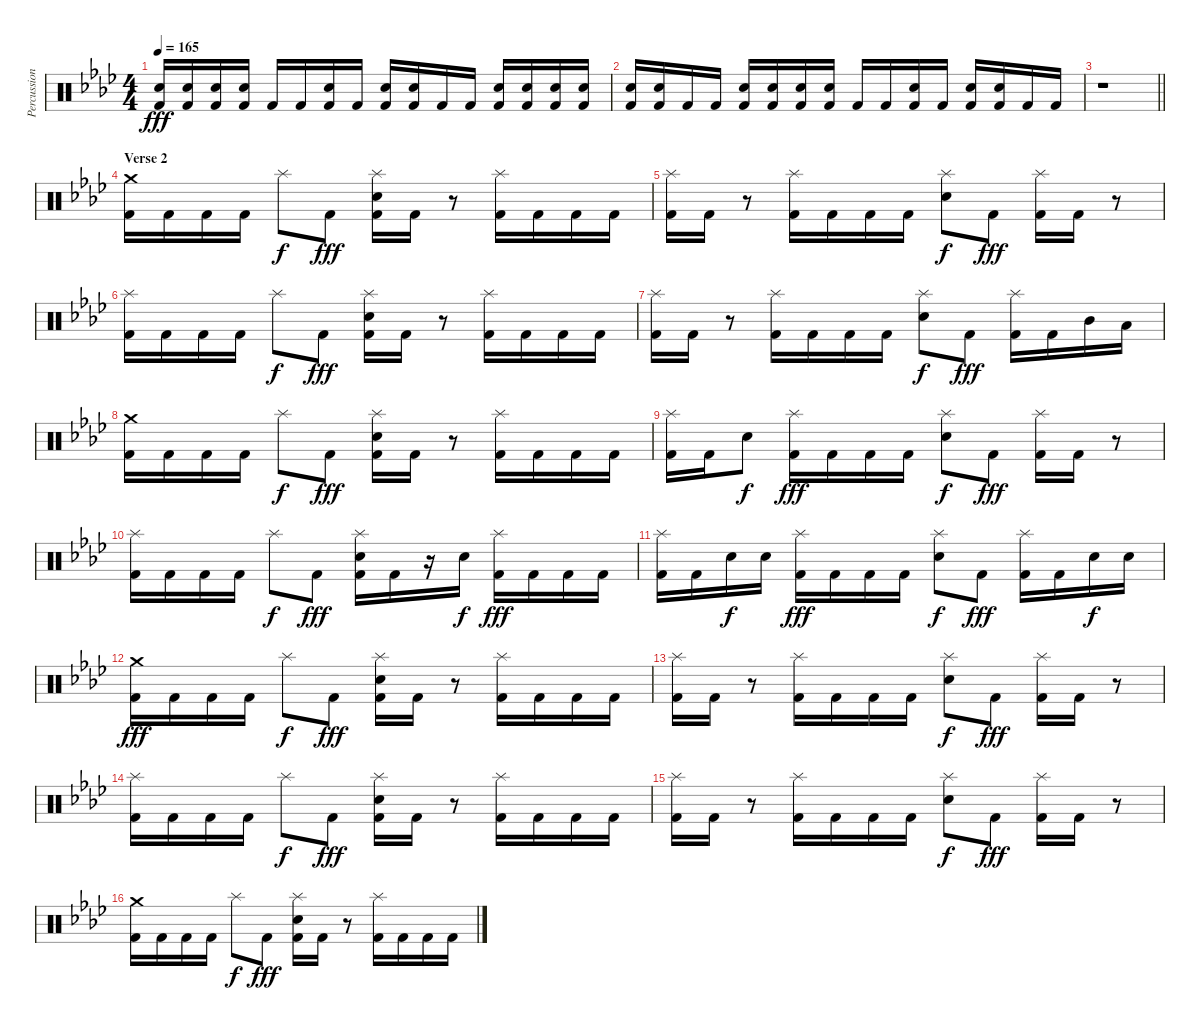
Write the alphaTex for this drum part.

\track ("Percussion" "Percussion") {instrument percussion}
\staff {score}
\articulation defaults
\ts (4 4)
\tempo 165
\clef neutral
\ks ab
("Electric Snare (hit)" "Kick (hit) 2").16{dy fff} ("Electric Snare (hit)" "Kick (hit) 2").16 ("Electric Snare (hit)" "Kick (hit) 2").16 ("Electric Snare (hit)" "Kick (hit) 2").16 "Kick (hit) 2".16 "Kick (hit) 2".16 ("Electric Snare (hit)" "Kick (hit) 2").16 "Kick (hit) 2".16 ("Electric Snare (hit)" "Kick (hit) 2").16 ("Electric Snare (hit)" "Kick (hit) 2").16 "Kick (hit) 2".16 "Kick (hit) 2".16 ("Electric Snare (hit)" "Kick (hit) 2").16 ("Electric Snare (hit)" "Kick (hit) 2").16 ("Electric Snare (hit)" "Kick (hit) 2").16 ("Electric Snare (hit)" "Kick (hit) 2").16 |
("Electric Snare (hit)" "Kick (hit) 2").16 ("Electric Snare (hit)" "Kick (hit) 2").16 "Kick (hit) 2".16 "Kick (hit) 2".16 ("Electric Snare (hit)" "Kick (hit) 2").16 ("Electric Snare (hit)" "Kick (hit) 2").16 ("Electric Snare (hit)" "Kick (hit) 2").16 ("Electric Snare (hit)" "Kick (hit) 2").16 "Kick (hit) 2".16 "Kick (hit) 2".16 ("Electric Snare (hit)" "Kick (hit) 2").16 "Kick (hit) 2".16 ("Electric Snare (hit)" "Kick (hit) 2").16 ("Electric Snare (hit)" "Kick (hit) 2").16 "Kick (hit) 2".16 "Kick (hit) 2".16 |
\barLineRight lightlight
r.1 |
\section ("" "Verse 2")
("Crash medium (hit)" "Kick (hit) 2").16 "Kick (hit) 2".16 "Kick (hit) 2".16 "Kick (hit) 2".16 "Splash (hit)".8{dy f} "Kick (hit) 2".8{dy fff} ("Splash (hit)" "Electric Snare (hit)" "Kick (hit) 2").16 "Kick (hit) 2".16 r.8 ("Splash (hit)" "Kick (hit) 2").16 "Kick (hit) 2".16 "Kick (hit) 2".16 "Kick (hit) 2".16 |
("Splash (hit)" "Kick (hit) 2").16 "Kick (hit) 2".16 r.8 ("Splash (hit)" "Kick (hit) 2").16 "Kick (hit) 2".16 "Kick (hit) 2".16 "Kick (hit) 2".16 ("Splash (hit)" "Electric Snare (hit)").8{dy f} "Kick (hit) 2".8{dy fff} ("Splash (hit)" "Kick (hit) 2").16 "Kick (hit) 2".16 r.8 |
("Splash (hit)" "Kick (hit) 2").16 "Kick (hit) 2".16 "Kick (hit) 2".16 "Kick (hit) 2".16 "Splash (hit)".8{dy f} "Kick (hit) 2".8{dy fff} ("Splash (hit)" "Electric Snare (hit)" "Kick (hit) 2").16 "Kick (hit) 2".16 r.8 ("Splash (hit)" "Kick (hit) 2").16 "Kick (hit) 2".16 "Kick (hit) 2".16 "Kick (hit) 2".16 |
("Splash (hit)" "Kick (hit) 2").16 "Kick (hit) 2".16 r.8 ("Splash (hit)" "Kick (hit) 2").16 "Kick (hit) 2".16 "Kick (hit) 2".16 "Kick (hit) 2".16 ("Splash (hit)" "Electric Snare (hit)").8{dy f} "Kick (hit) 2".8{dy fff} ("Splash (hit)" "Kick (hit) 2").16 "Kick (hit) 2".16 "Mid Tom (hit)".16 "Low Tom (hit)".16 |
("Crash medium (hit)" "Kick (hit) 2").16 "Kick (hit) 2".16 "Kick (hit) 2".16 "Kick (hit) 2".16 "Splash (hit)".8{dy f} "Kick (hit) 2".8{dy fff} ("Splash (hit)" "Electric Snare (hit)" "Kick (hit) 2").16 "Kick (hit) 2".16 r.8 ("Splash (hit)" "Kick (hit) 2").16 "Kick (hit) 2".16 "Kick (hit) 2".16 "Kick (hit) 2".16 |
("Splash (hit)" "Kick (hit) 2").16 "Kick (hit) 2".16 "Electric Snare (hit)".8{dy f} ("Splash (hit)" "Kick (hit) 2").16{dy fff} "Kick (hit) 2".16 "Kick (hit) 2".16 "Kick (hit) 2".16 ("Splash (hit)" "Electric Snare (hit)").8{dy f} "Kick (hit) 2".8{dy fff} ("Splash (hit)" "Kick (hit) 2").16 "Kick (hit) 2".16 r.8 |
("Splash (hit)" "Kick (hit) 2").16 "Kick (hit) 2".16 "Kick (hit) 2".16 "Kick (hit) 2".16 "Splash (hit)".8{dy f} "Kick (hit) 2".8{dy fff} ("Splash (hit)" "Electric Snare (hit)" "Kick (hit) 2").16 "Kick (hit) 2".16 r.16 "Electric Snare (hit)".16{dy f} ("Splash (hit)" "Kick (hit) 2").16{dy fff} "Kick (hit) 2".16 "Kick (hit) 2".16 "Kick (hit) 2".16 |
("Splash (hit)" "Kick (hit) 2").16 "Kick (hit) 2".16 "Electric Snare (hit)".16{dy f} "Electric Snare (hit)".16 ("Splash (hit)" "Kick (hit) 2").16{dy fff} "Kick (hit) 2".16 "Kick (hit) 2".16 "Kick (hit) 2".16 ("Splash (hit)" "Electric Snare (hit)").8{dy f} "Kick (hit) 2".8{dy fff} ("Splash (hit)" "Kick (hit) 2").16 "Kick (hit) 2".16 "Electric Snare (hit)".16{dy f} "Electric Snare (hit)".16 |
("Crash medium (hit)" "Kick (hit) 2").16{dy fff} "Kick (hit) 2".16 "Kick (hit) 2".16 "Kick (hit) 2".16 "Splash (hit)".8{dy f} "Kick (hit) 2".8{dy fff} ("Splash (hit)" "Electric Snare (hit)" "Kick (hit) 2").16 "Kick (hit) 2".16 r.8 ("Splash (hit)" "Kick (hit) 2").16 "Kick (hit) 2".16 "Kick (hit) 2".16 "Kick (hit) 2".16 |
("Splash (hit)" "Kick (hit) 2").16 "Kick (hit) 2".16 r.8 ("Splash (hit)" "Kick (hit) 2").16 "Kick (hit) 2".16 "Kick (hit) 2".16 "Kick (hit) 2".16 ("Splash (hit)" "Electric Snare (hit)").8{dy f} "Kick (hit) 2".8{dy fff} ("Splash (hit)" "Kick (hit) 2").16 "Kick (hit) 2".16 r.8 |
("Splash (hit)" "Kick (hit) 2").16 "Kick (hit) 2".16 "Kick (hit) 2".16 "Kick (hit) 2".16 "Splash (hit)".8{dy f} "Kick (hit) 2".8{dy fff} ("Splash (hit)" "Electric Snare (hit)" "Kick (hit) 2").16 "Kick (hit) 2".16 r.8 ("Splash (hit)" "Kick (hit) 2").16 "Kick (hit) 2".16 "Kick (hit) 2".16 "Kick (hit) 2".16 |
("Splash (hit)" "Kick (hit) 2").16 "Kick (hit) 2".16 r.8 ("Splash (hit)" "Kick (hit) 2").16 "Kick (hit) 2".16 "Kick (hit) 2".16 "Kick (hit) 2".16 ("Splash (hit)" "Electric Snare (hit)").8{dy f} "Kick (hit) 2".8{dy fff} ("Splash (hit)" "Kick (hit) 2").16 "Kick (hit) 2".16 r.8 |
("Crash medium (hit)" "Kick (hit) 2").16 "Kick (hit) 2".16 "Kick (hit) 2".16 "Kick (hit) 2".16 "Splash (hit)".8{dy f} "Kick (hit) 2".8{dy fff} ("Splash (hit)" "Electric Snare (hit)" "Kick (hit) 2").16 "Kick (hit) 2".16 r.8 ("Splash (hit)" "Kick (hit) 2").16 "Kick (hit) 2".16 "Kick (hit) 2".16 "Kick (hit) 2".16
